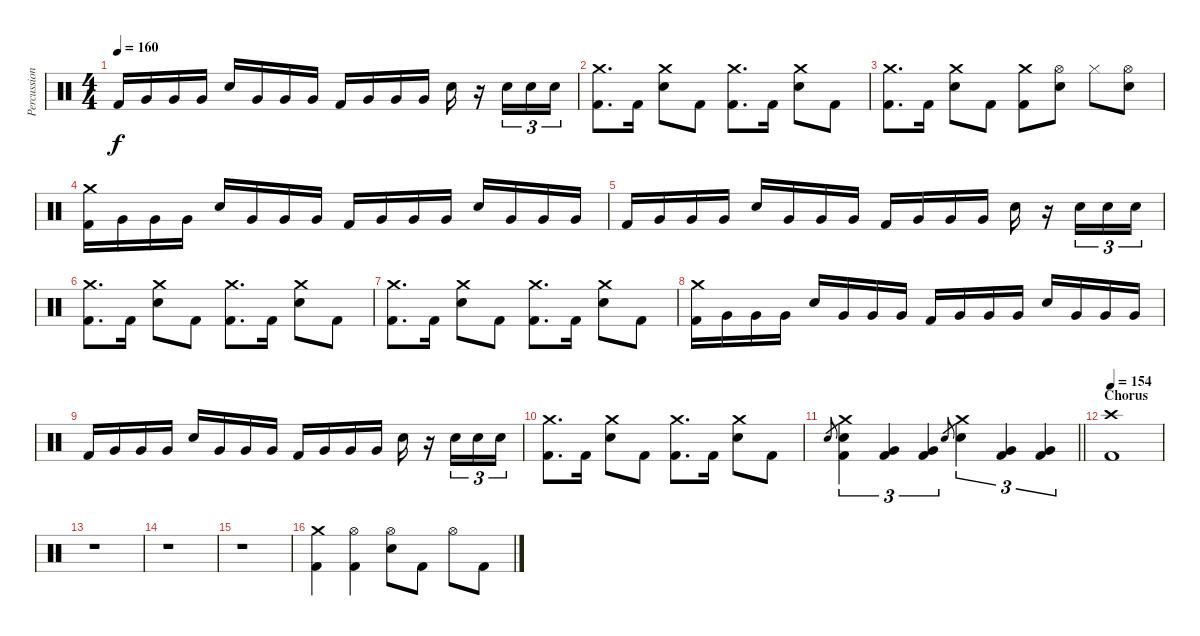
\track ("Percussion" "Percussion") {instrument percussion}
\staff {score}
\articulation defaults
\ts (4 4)
\tempo 160
\clef neutral
\ks c "Kick (hit) 2".16{dy f} "Very Low Tom (hit)".16 "Very Low Tom (hit)".16 "Very Low Tom (hit)".16 "Electric Snare (hit)".16 "Very Low Tom (hit)".16 "Very Low Tom (hit)".16 "Very Low Tom (hit)".16 "Kick (hit) 2".16 "Very Low Tom (hit)".16 "Very Low Tom (hit)".16 "Very Low Tom (hit)".16 "Electric Snare (hit)".16
r.16 "Electric Snare (hit)".16{tu (3 2)} "Electric Snare (hit)".16{tu (3 2)} "Electric Snare (hit)".16{tu (3 2)} |
("Crash medium (hit)" "Kick (hit) 2").8{d} "Kick (hit) 2".16 ("Crash medium (hit)" "Electric Snare (hit)").8 "Kick (hit) 2".8 ("Crash medium (hit)" "Kick (hit) 2").8{d} "Kick (hit) 2".16 ("Crash medium (hit)" "Electric Snare (hit)").8 "Kick (hit) 2".8 |
("Crash medium (hit)" "Kick (hit) 2").8{d} "Kick (hit) 2".16 ("Crash medium (hit)" "Electric Snare (hit)").8 "Kick (hit) 2".8 ("Crash medium (hit)" "Kick (hit) 2").8 ("Hi-Hat (open)" "Electric Snare (hit)").8 "Hi-Hat (closed)".8 ("Hi-Hat (open)" "Electric Snare (hit)").8 |
("Crash medium (hit)" "Kick (hit) 2").16 "Very Low Tom (hit)".16 "Very Low Tom (hit)".16 "Very Low Tom (hit)".16 "Electric Snare (hit)".16 "Very Low Tom (hit)".16 "Very Low Tom (hit)".16 "Very Low Tom (hit)".16 "Kick (hit) 2".16 "Very Low Tom (hit)".16 "Very Low Tom (hit)".16 "Very Low Tom (hit)".16 "Electric Snare (hit)".16 "Very Low Tom (hit)".16 "Very Low Tom (hit)".16 "Very Low Tom (hit)".16 |
"Kick (hit) 2".16 "Very Low Tom (hit)".16 "Very Low Tom (hit)".16 "Very Low Tom (hit)".16 "Electric Snare (hit)".16 "Very Low Tom (hit)".16 "Very Low Tom (hit)".16 "Very Low Tom (hit)".16 "Kick (hit) 2".16 "Very Low Tom (hit)".16 "Very Low Tom (hit)".16 "Very Low Tom (hit)".16 "Electric Snare (hit)".16 r.16 "Electric Snare (hit)".16{tu (3 2)} "Electric Snare (hit)".16{tu (3 2)} "Electric Snare (hit)".16{tu (3 2)} |
("Crash medium (hit)" "Kick (hit) 2").8{d} "Kick (hit) 2".16 ("Crash medium (hit)" "Electric Snare (hit)").8 "Kick (hit) 2".8 ("Crash medium (hit)" "Kick (hit) 2").8{d} "Kick (hit) 2".16 ("Crash medium (hit)" "Electric Snare (hit)").8 "Kick (hit) 2".8 |
("Crash medium (hit)" "Kick (hit) 2").8{d} "Kick (hit) 2".16 ("Crash medium (hit)" "Electric Snare (hit)").8 "Kick (hit) 2".8 ("Crash medium (hit)" "Kick (hit) 2").8{d} "Kick (hit) 2".16 ("Crash medium (hit)" "Electric Snare (hit)").8 "Kick (hit) 2".8 |
("Crash medium (hit)" "Kick (hit) 2").16 "Very Low Tom (hit)".16 "Very Low Tom (hit)".16 "Very Low Tom (hit)".16 "Electric Snare (hit)".16 "Very Low Tom (hit)".16 "Very Low Tom (hit)".16 "Very Low Tom (hit)".16 "Kick (hit) 2".16 "Very Low Tom (hit)".16 "Very Low Tom (hit)".16 "Very Low Tom (hit)".16 "Electric Snare (hit)".16 "Very Low Tom (hit)".16 "Very Low Tom (hit)".16 "Very Low Tom (hit)".16 |
"Kick (hit) 2".16 "Very Low Tom (hit)".16 "Very Low Tom (hit)".16 "Very Low Tom (hit)".16 "Electric Snare (hit)".16 "Very Low Tom (hit)".16 "Very Low Tom (hit)".16 "Very Low Tom (hit)".16 "Kick (hit) 2".16 "Very Low Tom (hit)".16 "Very Low Tom (hit)".16 "Very Low Tom (hit)".16 "Electric Snare (hit)".16 r.16 "Electric Snare (hit)".16{tu (3 2)} "Electric Snare (hit)".16{tu (3 2)} "Electric Snare (hit)".16{tu (3 2)} |
("Crash medium (hit)" "Kick (hit) 2").8{d} "Kick (hit) 2".16 ("Crash medium (hit)" "Electric Snare (hit)").8 "Kick (hit) 2".8 ("Crash medium (hit)" "Kick (hit) 2").8{d} "Kick (hit) 2".16 ("Crash medium (hit)" "Electric Snare (hit)").8 "Kick (hit) 2".8 |
\barLineRight lightlight "Electric Snare (hit)".8{gr}
("Crash medium (hit)" "Electric Snare (hit)" "Kick (hit) 2").4{tu (3 2)} ("Very Low Tom (hit)" "Kick (hit) 2").4{tu (3 2)} ("Very Low Tom (hit)" "Kick (hit) 2").4{tu (3 2)} "Electric Snare (hit)".8{gr} ("Crash medium (hit)" "Electric Snare (hit)").4{tu (3 2)} ("Very Low Tom (hit)" "Kick (hit) 2").4{tu (3 2)} ("Very Low Tom (hit)" "Kick (hit) 2").4{tu (3 2)} |
\section ("" "Chorus")
\tempo 154
("Crash high (hit)" "Kick (hit) 2").1 |
r.1 |
r.1 |
r.1 |
("Crash medium (hit)" "Kick (hit) 2").4 ("Hi-Hat (open)" "Kick (hit) 2").4 ("Electric Snare (hit)" "Hi-Hat (open)").8 "Kick (hit) 2".8 "Hi-Hat (open)".8 "Kick (hit) 2".8
